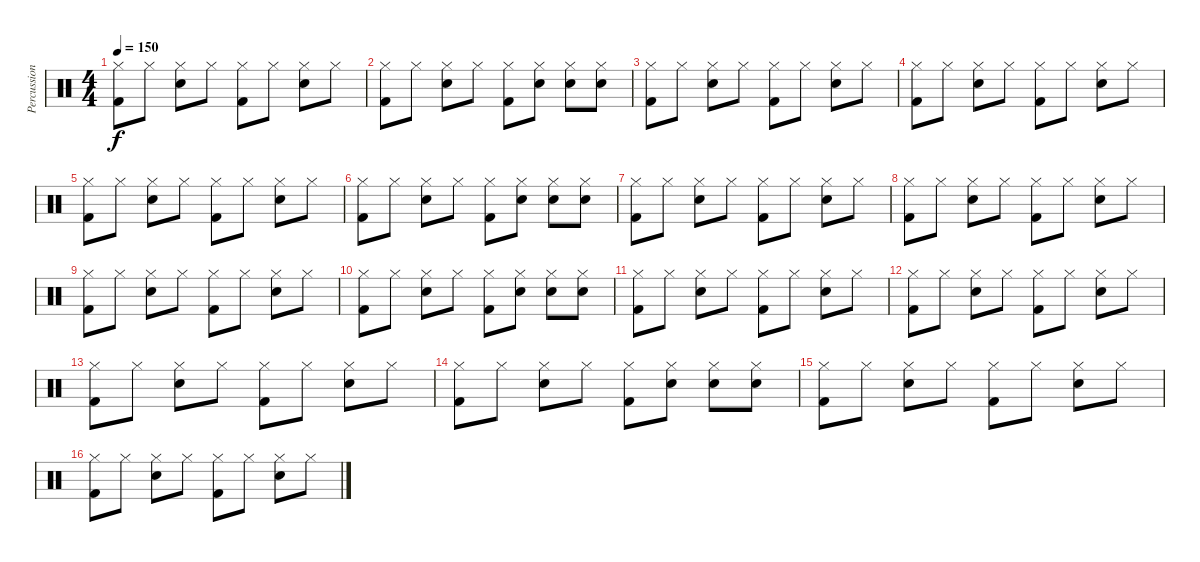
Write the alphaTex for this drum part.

\track ("Percussion" "Percussion") {instrument percussion}
\staff {score}
\articulation defaults
\ts (4 4)
\tempo 150
\clef neutral
\ks c
("Hi-Hat (closed)" "Kick (hit) 2").8{dy f} "Hi-Hat (closed)".8 ("Hi-Hat (closed)" "Electric Snare (hit)").8 "Hi-Hat (closed)".8 ("Hi-Hat (closed)" "Kick (hit) 2").8 "Hi-Hat (closed)".8 ("Hi-Hat (closed)" "Electric Snare (hit)").8 "Hi-Hat (closed)".8 |
("Hi-Hat (closed)" "Kick (hit) 2").8 "Hi-Hat (closed)".8 ("Hi-Hat (closed)" "Electric Snare (hit)").8 "Hi-Hat (closed)".8 ("Hi-Hat (closed)" "Kick (hit) 2").8 ("Hi-Hat (closed)" "Hand Clap (hit)").8 ("Hi-Hat (closed)" "Electric Snare (hit)").8 ("Hi-Hat (closed)" "Hand Clap (hit)").8 |
("Hi-Hat (closed)" "Kick (hit) 2").8 "Hi-Hat (closed)".8 ("Hi-Hat (closed)" "Electric Snare (hit)").8 "Hi-Hat (closed)".8 ("Hi-Hat (closed)" "Kick (hit) 2").8 "Hi-Hat (closed)".8 ("Hi-Hat (closed)" "Electric Snare (hit)").8 "Hi-Hat (closed)".8 |
("Hi-Hat (closed)" "Kick (hit) 2").8 "Hi-Hat (closed)".8 ("Hi-Hat (closed)" "Electric Snare (hit)").8 "Hi-Hat (closed)".8 ("Hi-Hat (closed)" "Kick (hit) 2").8 "Hi-Hat (closed)".8 ("Hi-Hat (closed)" "Electric Snare (hit)").8 "Hi-Hat (closed)".8 |
("Hi-Hat (closed)" "Kick (hit) 2").8 "Hi-Hat (closed)".8 ("Hi-Hat (closed)" "Electric Snare (hit)").8 "Hi-Hat (closed)".8 ("Hi-Hat (closed)" "Kick (hit) 2").8 "Hi-Hat (closed)".8 ("Hi-Hat (closed)" "Electric Snare (hit)").8 "Hi-Hat (closed)".8 |
("Hi-Hat (closed)" "Kick (hit) 2").8 "Hi-Hat (closed)".8 ("Hi-Hat (closed)" "Electric Snare (hit)").8 "Hi-Hat (closed)".8 ("Hi-Hat (closed)" "Kick (hit) 2").8 ("Hi-Hat (closed)" "Hand Clap (hit)").8 ("Hi-Hat (closed)" "Electric Snare (hit)").8 ("Hi-Hat (closed)" "Hand Clap (hit)").8 |
("Hi-Hat (closed)" "Kick (hit) 2").8 "Hi-Hat (closed)".8 ("Hi-Hat (closed)" "Electric Snare (hit)").8 "Hi-Hat (closed)".8 ("Hi-Hat (closed)" "Kick (hit) 2").8 "Hi-Hat (closed)".8 ("Hi-Hat (closed)" "Electric Snare (hit)").8 "Hi-Hat (closed)".8 |
("Hi-Hat (closed)" "Kick (hit) 2").8 "Hi-Hat (closed)".8 ("Hi-Hat (closed)" "Electric Snare (hit)").8 "Hi-Hat (closed)".8 ("Hi-Hat (closed)" "Kick (hit) 2").8 "Hi-Hat (closed)".8 ("Hi-Hat (closed)" "Electric Snare (hit)").8 "Hi-Hat (closed)".8 |
("Hi-Hat (closed)" "Kick (hit) 2").8 "Hi-Hat (closed)".8 ("Hi-Hat (closed)" "Electric Snare (hit)").8 "Hi-Hat (closed)".8 ("Hi-Hat (closed)" "Kick (hit) 2").8 "Hi-Hat (closed)".8 ("Hi-Hat (closed)" "Electric Snare (hit)").8 "Hi-Hat (closed)".8 |
("Hi-Hat (closed)" "Kick (hit) 2").8 "Hi-Hat (closed)".8 ("Hi-Hat (closed)" "Electric Snare (hit)").8 "Hi-Hat (closed)".8 ("Hi-Hat (closed)" "Kick (hit) 2").8 ("Hi-Hat (closed)" "Hand Clap (hit)").8 ("Hi-Hat (closed)" "Electric Snare (hit)").8 ("Hi-Hat (closed)" "Hand Clap (hit)").8 |
("Hi-Hat (closed)" "Kick (hit) 2").8 "Hi-Hat (closed)".8 ("Hi-Hat (closed)" "Electric Snare (hit)").8 "Hi-Hat (closed)".8 ("Hi-Hat (closed)" "Kick (hit) 2").8 "Hi-Hat (closed)".8 ("Hi-Hat (closed)" "Electric Snare (hit)").8 "Hi-Hat (closed)".8 |
("Hi-Hat (closed)" "Kick (hit) 2").8 "Hi-Hat (closed)".8 ("Hi-Hat (closed)" "Electric Snare (hit)").8 "Hi-Hat (closed)".8 ("Hi-Hat (closed)" "Kick (hit) 2").8 "Hi-Hat (closed)".8 ("Hi-Hat (closed)" "Electric Snare (hit)").8 "Hi-Hat (closed)".8 |
("Hi-Hat (closed)" "Kick (hit) 2").8 "Hi-Hat (closed)".8 ("Hi-Hat (closed)" "Electric Snare (hit)").8 "Hi-Hat (closed)".8 ("Hi-Hat (closed)" "Kick (hit) 2").8 "Hi-Hat (closed)".8 ("Hi-Hat (closed)" "Electric Snare (hit)").8 "Hi-Hat (closed)".8 |
("Hi-Hat (closed)" "Kick (hit) 2").8 "Hi-Hat (closed)".8 ("Hi-Hat (closed)" "Electric Snare (hit)").8 "Hi-Hat (closed)".8 ("Hi-Hat (closed)" "Kick (hit) 2").8 ("Hi-Hat (closed)" "Hand Clap (hit)").8 ("Hi-Hat (closed)" "Electric Snare (hit)").8 ("Hi-Hat (closed)" "Hand Clap (hit)").8 |
("Hi-Hat (closed)" "Kick (hit) 2").8 "Hi-Hat (closed)".8 ("Hi-Hat (closed)" "Electric Snare (hit)").8 "Hi-Hat (closed)".8 ("Hi-Hat (closed)" "Kick (hit) 2").8 "Hi-Hat (closed)".8 ("Hi-Hat (closed)" "Electric Snare (hit)").8 "Hi-Hat (closed)".8 |
("Hi-Hat (closed)" "Kick (hit) 2").8 "Hi-Hat (closed)".8 ("Hi-Hat (closed)" "Electric Snare (hit)").8 "Hi-Hat (closed)".8 ("Hi-Hat (closed)" "Kick (hit) 2").8 "Hi-Hat (closed)".8 ("Hi-Hat (closed)" "Electric Snare (hit)").8 "Hi-Hat (closed)".8
